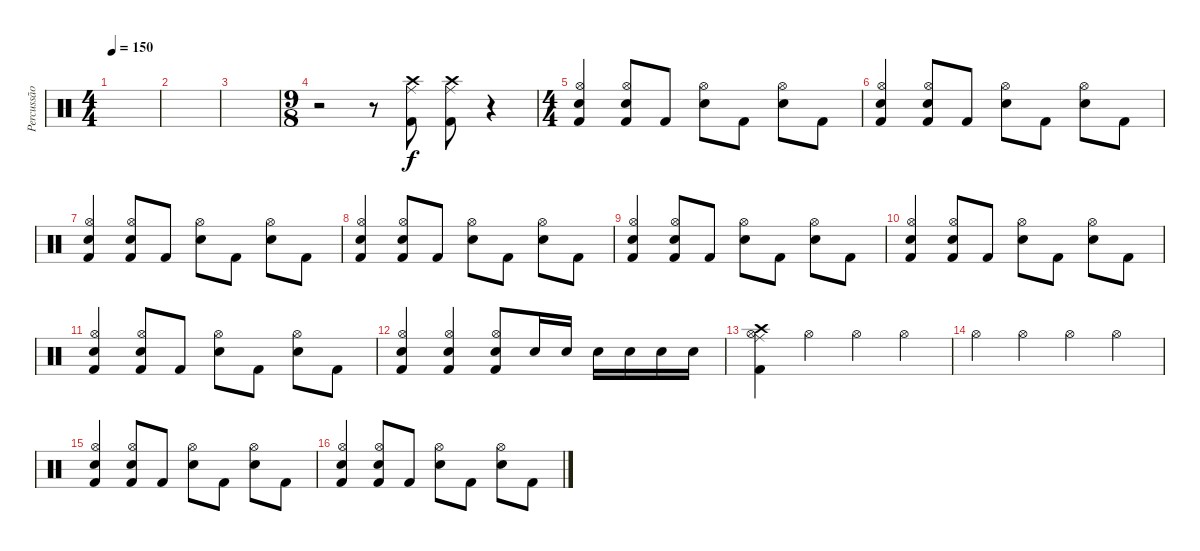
\track ("Percussão" "Percussão") {instrument percussion}
\staff {score}
\articulation defaults
\ts (4 4)
\tempo 150
\clef neutral
\ks c
|
|
|
\ts (9 8)
r.2 r.8 ("Kick (hit) 2" "Crash high (hit)" "Ride (middle)").8 ("Kick (hit) 2" "Crash high (hit)" "Ride (middle)").8 r.4 |
\ts (4 4)
("Kick (hit) 2" "Hi-Hat (open)" "Electric Snare (hit)").4 ("Kick (hit) 2" "Hi-Hat (open)" "Electric Snare (hit)").8 "Kick (hit) 2".8 ("Hi-Hat (open)" "Electric Snare (hit)").8 "Kick (hit) 2".8 ("Hi-Hat (open)" "Electric Snare (hit)").8 "Kick (hit) 2".8 |
("Kick (hit) 2" "Hi-Hat (open)" "Electric Snare (hit)").4 ("Kick (hit) 2" "Hi-Hat (open)" "Electric Snare (hit)").8 "Kick (hit) 2".8 ("Hi-Hat (open)" "Electric Snare (hit)").8 "Kick (hit) 2".8 ("Hi-Hat (open)" "Electric Snare (hit)").8 "Kick (hit) 2".8 |
("Kick (hit) 2" "Hi-Hat (open)" "Electric Snare (hit)").4 ("Kick (hit) 2" "Hi-Hat (open)" "Electric Snare (hit)").8 "Kick (hit) 2".8 ("Hi-Hat (open)" "Electric Snare (hit)").8 "Kick (hit) 2".8 ("Hi-Hat (open)" "Electric Snare (hit)").8 "Kick (hit) 2".8 |
("Kick (hit) 2" "Hi-Hat (open)" "Electric Snare (hit)").4 ("Kick (hit) 2" "Hi-Hat (open)" "Electric Snare (hit)").8 "Kick (hit) 2".8 ("Hi-Hat (open)" "Electric Snare (hit)").8 "Kick (hit) 2".8 ("Hi-Hat (open)" "Electric Snare (hit)").8 "Kick (hit) 2".8 |
("Kick (hit) 2" "Hi-Hat (open)" "Electric Snare (hit)").4 ("Kick (hit) 2" "Hi-Hat (open)" "Electric Snare (hit)").8 "Kick (hit) 2".8 ("Hi-Hat (open)" "Electric Snare (hit)").8 "Kick (hit) 2".8 ("Hi-Hat (open)" "Electric Snare (hit)").8 "Kick (hit) 2".8 |
("Kick (hit) 2" "Hi-Hat (open)" "Electric Snare (hit)").4 ("Kick (hit) 2" "Hi-Hat (open)" "Electric Snare (hit)").8 "Kick (hit) 2".8 ("Hi-Hat (open)" "Electric Snare (hit)").8 "Kick (hit) 2".8 ("Hi-Hat (open)" "Electric Snare (hit)").8 "Kick (hit) 2".8 |
("Kick (hit) 2" "Hi-Hat (open)" "Electric Snare (hit)").4 ("Kick (hit) 2" "Hi-Hat (open)" "Electric Snare (hit)").8 "Kick (hit) 2".8 ("Hi-Hat (open)" "Electric Snare (hit)").8 "Kick (hit) 2".8 ("Hi-Hat (open)" "Electric Snare (hit)").8 "Kick (hit) 2".8 |
("Kick (hit) 2" "Hi-Hat (open)" "Electric Snare (hit)").4 ("Kick (hit) 2" "Hi-Hat (open)" "Electric Snare (hit)").4 ("Kick (hit) 2" "Hi-Hat (open)" "Electric Snare (hit)").8 "Electric Snare (hit)".16 "Electric Snare (hit)".16 "Electric Snare (hit)".16 "Electric Snare (hit)".16 "Electric Snare (hit)".16 "Electric Snare (hit)".16 |
("Kick (hit) 2" "Crash high (hit)" "Ride (middle)" "Hi-Hat (open)").4 "Hi-Hat (open)".4 "Hi-Hat (open)".4 "Hi-Hat (open)".4 |
"Hi-Hat (open)".4 "Hi-Hat (open)".4 "Hi-Hat (open)".4 "Hi-Hat (open)".4 |
("Kick (hit) 2" "Hi-Hat (open)" "Electric Snare (hit)").4 ("Kick (hit) 2" "Hi-Hat (open)" "Electric Snare (hit)").8 "Kick (hit) 2".8 ("Hi-Hat (open)" "Electric Snare (hit)").8 "Kick (hit) 2".8 ("Hi-Hat (open)" "Electric Snare (hit)").8 "Kick (hit) 2".8 |
("Kick (hit) 2" "Hi-Hat (open)" "Electric Snare (hit)").4 ("Kick (hit) 2" "Hi-Hat (open)" "Electric Snare (hit)").8 "Kick (hit) 2".8 ("Hi-Hat (open)" "Electric Snare (hit)").8 "Kick (hit) 2".8 ("Hi-Hat (open)" "Electric Snare (hit)").8 "Kick (hit) 2".8
